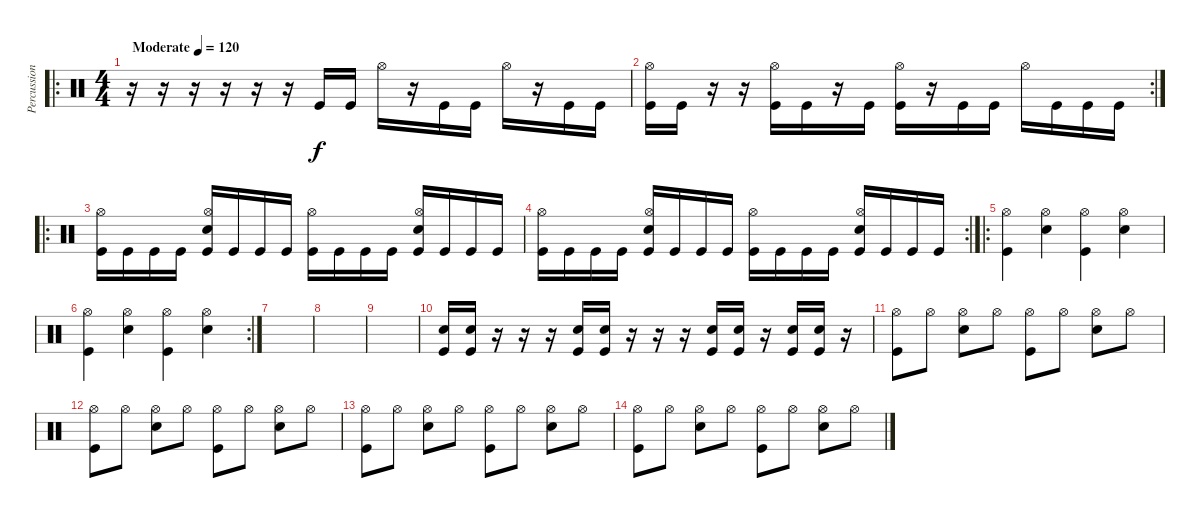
\track ("Percussion" "Percussion") {instrument percussion}
\staff {score}
\articulation defaults
\ro
\ts (4 4)
\tempo (120 "Moderate")
\clef neutral
\ks c
r.16{dy f} r.16 r.16 r.16 r.16 r.16 "Kick (hit)".16 "Kick (hit)".16 "Hi-Hat (open)".16 r.16 "Kick (hit)".16 "Kick (hit)".16 "Hi-Hat (open)".16 r.16 "Kick (hit)".16 "Kick (hit)".16 |
\rc 2
("Hi-Hat (open)" "Kick (hit)").16 "Kick (hit)".16 r.16 r.16 ("Hi-Hat (open)" "Kick (hit)").16 "Kick (hit)".16 r.16 "Kick (hit)".16 ("Hi-Hat (open)" "Kick (hit)").16 r.16 "Kick (hit)".16 "Kick (hit)".16 "Hi-Hat (open)".16 "Kick (hit)".16 "Kick (hit)".16 "Kick (hit)".16 |
\ro
("Hi-Hat (open)" "Kick (hit)").16 "Kick (hit)".16 "Kick (hit)".16 "Kick (hit)".16 ("Hi-Hat (open)" "Snare (hit) 2" "Kick (hit)").16 "Kick (hit)".16 "Kick (hit)".16 "Kick (hit)".16 ("Hi-Hat (open)" "Kick (hit)").16 "Kick (hit)".16 "Kick (hit)".16 "Kick (hit)".16 ("Hi-Hat (open)" "Snare (hit) 2" "Kick (hit)").16 "Kick (hit)".16 "Kick (hit)".16 "Kick (hit)".16 |
\rc 2
("Hi-Hat (open)" "Kick (hit)").16 "Kick (hit)".16 "Kick (hit)".16 "Kick (hit)".16 ("Hi-Hat (open)" "Snare (hit) 2" "Kick (hit)").16 "Kick (hit)".16 "Kick (hit)".16 "Kick (hit)".16 ("Hi-Hat (open)" "Kick (hit)").16 "Kick (hit)".16 "Kick (hit)".16 "Kick (hit)".16 ("Hi-Hat (open)" "Snare (hit) 2" "Kick (hit)").16 "Kick (hit)".16 "Kick (hit)".16 "Kick (hit)".16 |
\ro
("Hi-Hat (open)" "Kick (hit)").4 ("Hi-Hat (open)" "Snare (hit) 2").4 ("Hi-Hat (open)" "Kick (hit)").4 ("Hi-Hat (open)" "Snare (hit) 2").4 |
\rc 2
("Hi-Hat (open)" "Kick (hit)").4 ("Hi-Hat (open)" "Snare (hit) 2").4 ("Hi-Hat (open)" "Kick (hit)").4 ("Hi-Hat (open)" "Snare (hit) 2").4 |
|
|
|
("Snare (hit) 2" "Kick (hit)").16 ("Snare (hit) 2" "Kick (hit)").16 r.16 r.16 r.16 ("Snare (hit) 2" "Kick (hit)").16 ("Snare (hit) 2" "Kick (hit)").16 r.16 r.16 r.16 ("Snare (hit) 2" "Kick (hit)").16 ("Snare (hit) 2" "Kick (hit)").16 r.16 ("Snare (hit) 2" "Kick (hit)").16 ("Snare (hit) 2" "Kick (hit)").16 r.16 |
("Hi-Hat (open)" "Kick (hit)").8 "Hi-Hat (open)".8 ("Hi-Hat (open)" "Snare (hit) 2").8 "Hi-Hat (open)".8 ("Hi-Hat (open)" "Kick (hit)").8 "Hi-Hat (open)".8 ("Hi-Hat (open)" "Snare (hit) 2").8 "Hi-Hat (open)".8 |
("Hi-Hat (open)" "Kick (hit)").8 "Hi-Hat (open)".8 ("Hi-Hat (open)" "Snare (hit) 2").8 "Hi-Hat (open)".8 ("Hi-Hat (open)" "Kick (hit)").8 "Hi-Hat (open)".8 ("Hi-Hat (open)" "Snare (hit) 2").8 "Hi-Hat (open)".8 |
("Hi-Hat (open)" "Kick (hit)").8 "Hi-Hat (open)".8 ("Hi-Hat (open)" "Snare (hit) 2").8 "Hi-Hat (open)".8 ("Hi-Hat (open)" "Kick (hit)").8 "Hi-Hat (open)".8 ("Hi-Hat (open)" "Snare (hit) 2").8 "Hi-Hat (open)".8 |
("Hi-Hat (open)" "Kick (hit)").8 "Hi-Hat (open)".8 ("Hi-Hat (open)" "Snare (hit) 2").8 "Hi-Hat (open)".8 ("Hi-Hat (open)" "Kick (hit)").8 "Hi-Hat (open)".8 ("Hi-Hat (open)" "Snare (hit) 2").8 "Hi-Hat (open)".8
